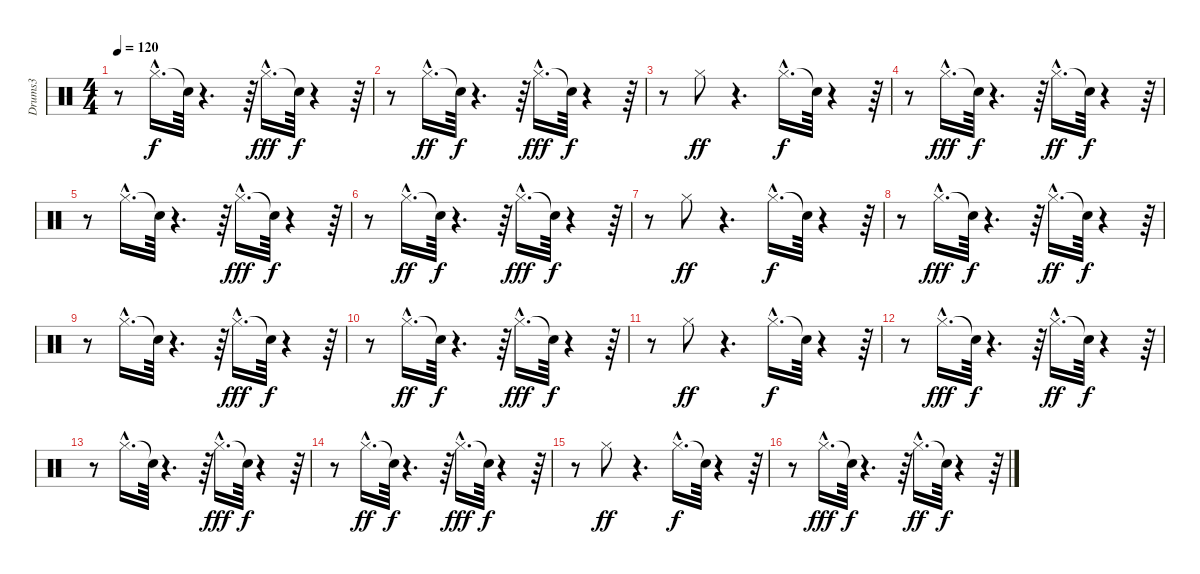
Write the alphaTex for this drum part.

\track ("Drums3" "Drums3") {instrument percussion}
\staff {score}
\articulation defaults
\ts (4 4)
\tempo 120
\clef neutral
\ks c
r.8{dy f} "Hi-Hat (closed)"{hac}.16{d} "Snare (hit)"{t}.64 r.4{d} r.64 "Hi-Hat (closed)"{hac}.16{d dy fff} "Snare (hit)"{t}.64{dy f} r.4 r.64 |
r.8 "Hi-Hat (closed)"{hac}.16{d dy ff} "Snare (hit)"{t}.64{dy f} r.4{d} r.64 "Hi-Hat (closed)"{hac}.16{d dy fff} "Snare (hit)"{t}.64{dy f} r.4 r.64 |
r.8 "Hi-Hat (closed)".8{dy ff} r.4{d} "Hi-Hat (closed)"{hac}.16{d dy f} "Snare (hit)"{t}.64 r.4 r.64 |
r.8 "Hi-Hat (closed)"{hac}.16{d dy fff} "Snare (hit)"{t}.64{dy f} r.4{d} r.64 "Hi-Hat (closed)"{hac}.16{d dy ff} "Snare (hit)"{t}.64{dy f} r.4 r.64 |
r.8 "Hi-Hat (closed)"{hac}.16{d} "Snare (hit)"{t}.64 r.4{d} r.64 "Hi-Hat (closed)"{hac}.16{d dy fff} "Snare (hit)"{t}.64{dy f} r.4 r.64 |
r.8 "Hi-Hat (closed)"{hac}.16{d dy ff} "Snare (hit)"{t}.64{dy f} r.4{d} r.64 "Hi-Hat (closed)"{hac}.16{d dy fff} "Snare (hit)"{t}.64{dy f} r.4 r.64 |
r.8 "Hi-Hat (closed)".8{dy ff} r.4{d} "Hi-Hat (closed)"{hac}.16{d dy f} "Snare (hit)"{t}.64 r.4 r.64 |
r.8 "Hi-Hat (closed)"{hac}.16{d dy fff} "Snare (hit)"{t}.64{dy f} r.4{d} r.64 "Hi-Hat (closed)"{hac}.16{d dy ff} "Snare (hit)"{t}.64{dy f} r.4 r.64 |
r.8 "Hi-Hat (closed)"{hac}.16{d} "Snare (hit)"{t}.64 r.4{d} r.64 "Hi-Hat (closed)"{hac}.16{d dy fff} "Snare (hit)"{t}.64{dy f} r.4 r.64 |
r.8 "Hi-Hat (closed)"{hac}.16{d dy ff} "Snare (hit)"{t}.64{dy f} r.4{d} r.64 "Hi-Hat (closed)"{hac}.16{d dy fff} "Snare (hit)"{t}.64{dy f} r.4 r.64 |
r.8 "Hi-Hat (closed)".8{dy ff} r.4{d} "Hi-Hat (closed)"{hac}.16{d dy f} "Snare (hit)"{t}.64 r.4 r.64 |
r.8 "Hi-Hat (closed)"{hac}.16{d dy fff} "Snare (hit)"{t}.64{dy f} r.4{d} r.64 "Hi-Hat (closed)"{hac}.16{d dy ff} "Snare (hit)"{t}.64{dy f} r.4 r.64 |
r.8 "Hi-Hat (closed)"{hac}.16{d} "Snare (hit)"{t}.64 r.4{d} r.64 "Hi-Hat (closed)"{hac}.16{d dy fff} "Snare (hit)"{t}.64{dy f} r.4 r.64 |
r.8 "Hi-Hat (closed)"{hac}.16{d dy ff} "Snare (hit)"{t}.64{dy f} r.4{d} r.64 "Hi-Hat (closed)"{hac}.16{d dy fff} "Snare (hit)"{t}.64{dy f} r.4 r.64 |
r.8 "Hi-Hat (closed)".8{dy ff} r.4{d} "Hi-Hat (closed)"{hac}.16{d dy f} "Snare (hit)"{t}.64 r.4 r.64 |
r.8 "Hi-Hat (closed)"{hac}.16{d dy fff} "Snare (hit)"{t}.64{dy f} r.4{d} r.64 "Hi-Hat (closed)"{hac}.16{d dy ff} "Snare (hit)"{t}.64{dy f} r.4 r.64
